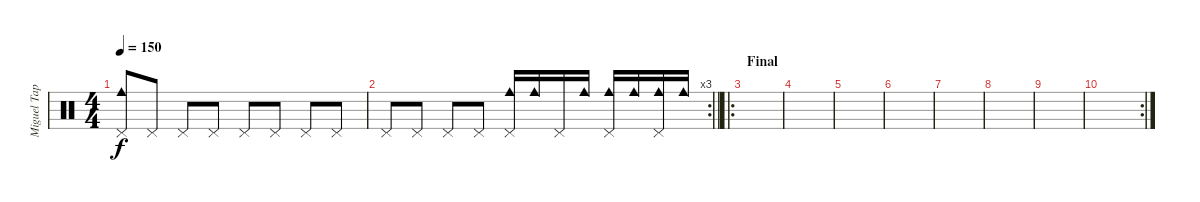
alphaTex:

\track ("Miguel Tapia" "Miguel Tap") {instrument percussion}
\staff {score}
\articulation defaults
\ts (4 4)
\tempo 150
\clef neutral
\ks c
("Pedal Hi-Hat (hit)" "Cowbell medium (hit)").8{dy f} "Pedal Hi-Hat (hit)".8 "Pedal Hi-Hat (hit)".8 "Pedal Hi-Hat (hit)".8 "Pedal Hi-Hat (hit)".8 "Pedal Hi-Hat (hit)".8 "Pedal Hi-Hat (hit)".8 "Pedal Hi-Hat (hit)".8 |
\rc 3
\barLineRight lightlight "Pedal Hi-Hat (hit)".8 "Pedal Hi-Hat (hit)".8 "Pedal Hi-Hat (hit)".8 "Pedal Hi-Hat (hit)".8
("Pedal Hi-Hat (hit)" "Cowbell medium (hit)").16 "Cowbell medium (hit)".16 "Pedal Hi-Hat (hit)".16 "Cowbell medium (hit)".16 ("Pedal Hi-Hat (hit)" "Cowbell medium (hit)").16 "Cowbell medium (hit)".16 ("Pedal Hi-Hat (hit)" "Cowbell medium (hit)").16 "Cowbell medium (hit)".16 |
\ro
\section ("" "Final")
|
|
|
|
|
|
|
\rc 2
